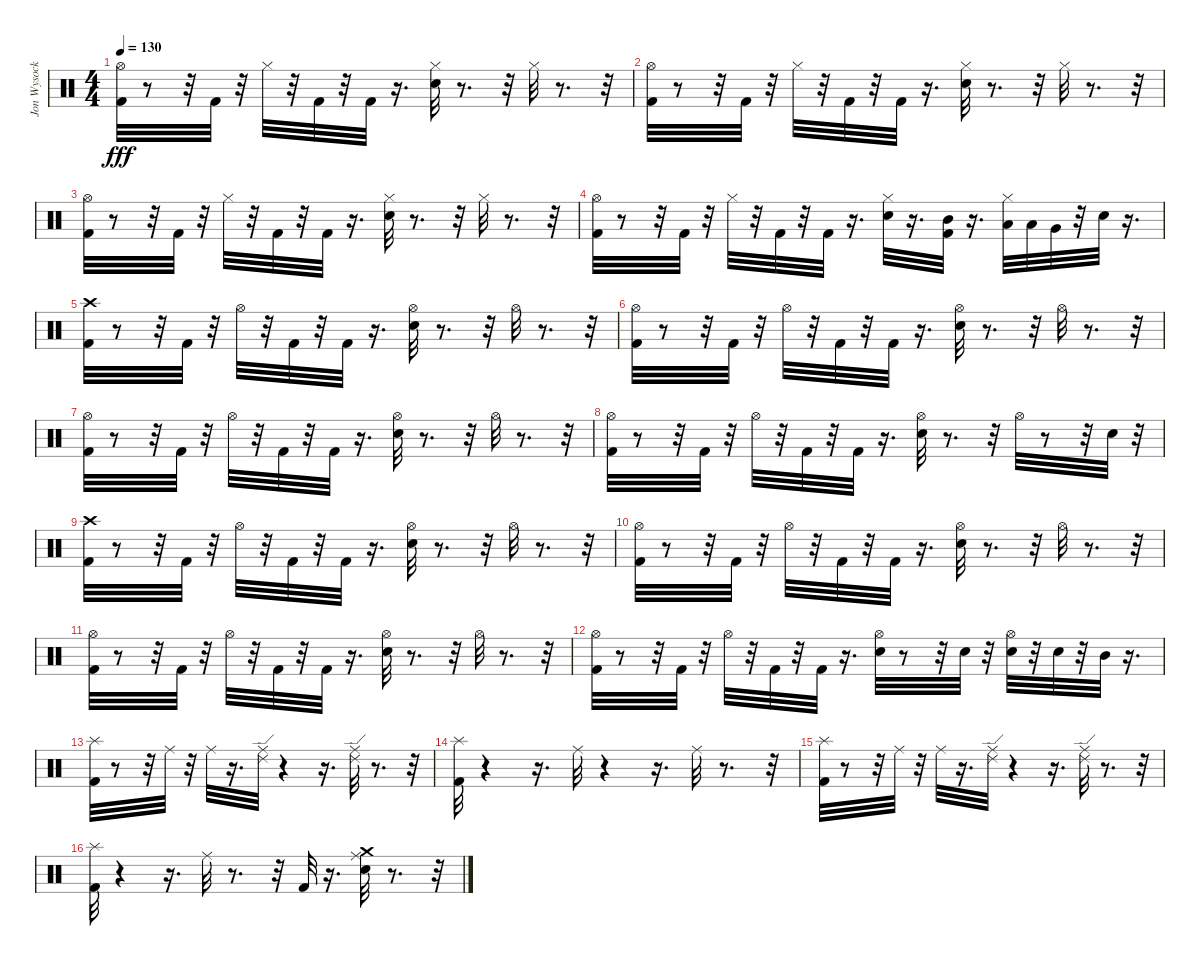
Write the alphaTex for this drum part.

\track ("Jon Wysocki - Drums" "Jon Wysock") {instrument percussion}
\staff {score}
\articulation defaults
\ts (4 4)
\tempo 130
\clef neutral
\ks c
("Kick (hit) 2" "Hi-Hat (open)").32{dy fff} r.8 r.32 "Kick (hit) 2".32 r.32 "Hi-Hat (closed)".32 r.32 "Kick (hit) 2".32 r.32 "Kick (hit) 2".32 r.16{d} ("Hi-Hat (closed)" "Electric Snare (hit)").32 r.8{d} r.32 "Hi-Hat (closed)".32 r.8{d} r.32 |
("Hi-Hat (open)" "Kick (hit) 2").32 r.8 r.32 "Kick (hit) 2".32 r.32 "Hi-Hat (closed)".32 r.32 "Kick (hit) 2".32 r.32 "Kick (hit) 2".32 r.16{d} ("Electric Snare (hit)" "Hi-Hat (closed)").32 r.8{d} r.32 "Hi-Hat (closed)".32 r.8{d} r.32 |
("Hi-Hat (open)" "Kick (hit) 2").32 r.8 r.32 "Kick (hit) 2".32 r.32 "Hi-Hat (closed)".32 r.32 "Kick (hit) 2".32 r.32 "Kick (hit) 2".32 r.16{d} ("Electric Snare (hit)" "Hi-Hat (closed)").32 r.8{d} r.32 "Hi-Hat (closed)".32 r.8{d} r.32 |
("Kick (hit) 2" "Hi-Hat (open)").32 r.8 r.32 "Kick (hit) 2".32 r.32 "Hi-Hat (closed)".32 r.32 "Kick (hit) 2".32 r.32 "Kick (hit) 2".32 r.16{d} ("Hi-Hat (closed)" "Electric Snare (hit)").32 r.16{d} ("Mid Tom (hit)" "Kick (hit) 2").32 r.16{d} ("Low Tom (hit)" "Hi-Hat (closed)").32 "Low Tom (hit)".32 "Very Low Tom (hit)".32 r.32 "Electric Snare (hit)".32 r.16{d} |
("Crash high (hit)" "Kick (hit) 2").32 r.8 r.32 "Kick (hit) 2".32 r.32 "Hi-Hat (open)".32 r.32 "Kick (hit) 2".32 r.32 "Kick (hit) 2".32 r.16{d} ("Hi-Hat (open)" "Electric Snare (hit)").32 r.8{d} r.32 "Hi-Hat (open)".32 r.8{d} r.32 |
("Hi-Hat (open)" "Kick (hit) 2").32 r.8 r.32 "Kick (hit) 2".32 r.32 "Hi-Hat (open)".32 r.32 "Kick (hit) 2".32 r.32 "Kick (hit) 2".32 r.16{d} ("Hi-Hat (open)" "Electric Snare (hit)").32 r.8{d} r.32 "Hi-Hat (open)".32 r.8{d} r.32 |
("Hi-Hat (open)" "Kick (hit) 2").32 r.8 r.32 "Kick (hit) 2".32 r.32 "Hi-Hat (open)".32 r.32 "Kick (hit) 2".32 r.32 "Kick (hit) 2".32 r.16{d} ("Hi-Hat (open)" "Electric Snare (hit)").32 r.8{d} r.32 "Hi-Hat (open)".32 r.8{d} r.32 |
("Hi-Hat (open)" "Kick (hit) 2").32 r.8 r.32 "Kick (hit) 2".32 r.32 "Hi-Hat (open)".32 r.32 "Kick (hit) 2".32 r.32 "Kick (hit) 2".32 r.16{d} ("Hi-Hat (open)" "Electric Snare (hit)").32 r.8{d} r.32 "Hi-Hat (open)".32 r.8 r.32 "Electric Snare (hit)".32 r.32 |
("Crash high (hit)" "Kick (hit) 2").32 r.8 r.32 "Kick (hit) 2".32 r.32 "Hi-Hat (open)".32 r.32 "Kick (hit) 2".32 r.32 "Kick (hit) 2".32 r.16{d} ("Hi-Hat (open)" "Electric Snare (hit)").32 r.8{d} r.32 "Hi-Hat (open)".32 r.8{d} r.32 |
("Hi-Hat (open)" "Kick (hit) 2").32 r.8 r.32 "Kick (hit) 2".32 r.32 "Hi-Hat (open)".32 r.32 "Kick (hit) 2".32 r.32 "Kick (hit) 2".32 r.16{d} ("Hi-Hat (open)" "Electric Snare (hit)").32 r.8{d} r.32 "Hi-Hat (open)".32 r.8{d} r.32 |
("Hi-Hat (open)" "Kick (hit) 2").32 r.8 r.32 "Kick (hit) 2".32 r.32 "Hi-Hat (open)".32 r.32 "Kick (hit) 2".32 r.32 "Kick (hit) 2".32 r.16{d} ("Hi-Hat (open)" "Electric Snare (hit)").32 r.8{d} r.32 "Hi-Hat (open)".32 r.8{d} r.32 |
("Hi-Hat (open)" "Kick (hit) 2").32 r.8 r.32 "Kick (hit) 2".32 r.32 "Hi-Hat (open)".32 r.32 "Kick (hit) 2".32 r.32 "Kick (hit) 2".32 r.16{d} ("Hi-Hat (open)" "Electric Snare (hit)").32 r.8 r.32 "Electric Snare (hit)".32 r.32 ("Electric Snare (hit)" "Hi-Hat (open)").32 r.32 "Electric Snare (hit)".32 r.32 "Mid Tom (hit)".32 r.16{d} |
("Kick (hit) 2" "Splash (hit)").32 r.8 r.32 "Ride (middle)".32 r.32 "Ride (middle)".32 r.16{d} ("Ride (edge) 2" "Ride (middle)").32 r.4 r.16{d} ("Ride (edge) 2" "Ride (middle)").32 r.8{d} r.32 |
("Splash (hit)" "Kick (hit) 2").32 r.4 r.16{d} "Ride (middle)".32 r.4 r.16{d} "Ride (middle)".32 r.8{d} r.32 |
("Splash (hit)" "Kick (hit) 2").32 r.8 r.32 "Ride (middle)".32 r.32 "Ride (middle)".32 r.16{d} ("Ride (edge) 2" "Ride (middle)").32 r.4 r.16{d} ("Ride (edge) 2" "Ride (middle)").32 r.8{d} r.32 |
("Splash (hit)" "Kick (hit) 2").32 r.4 r.16{d} "Ride (middle)".32 r.8{d} r.32 "Kick (hit) 2".32 r.16{d} ("Crash medium (hit)" "Ride (middle)" "Electric Snare (hit)").32 r.8{d} r.32
